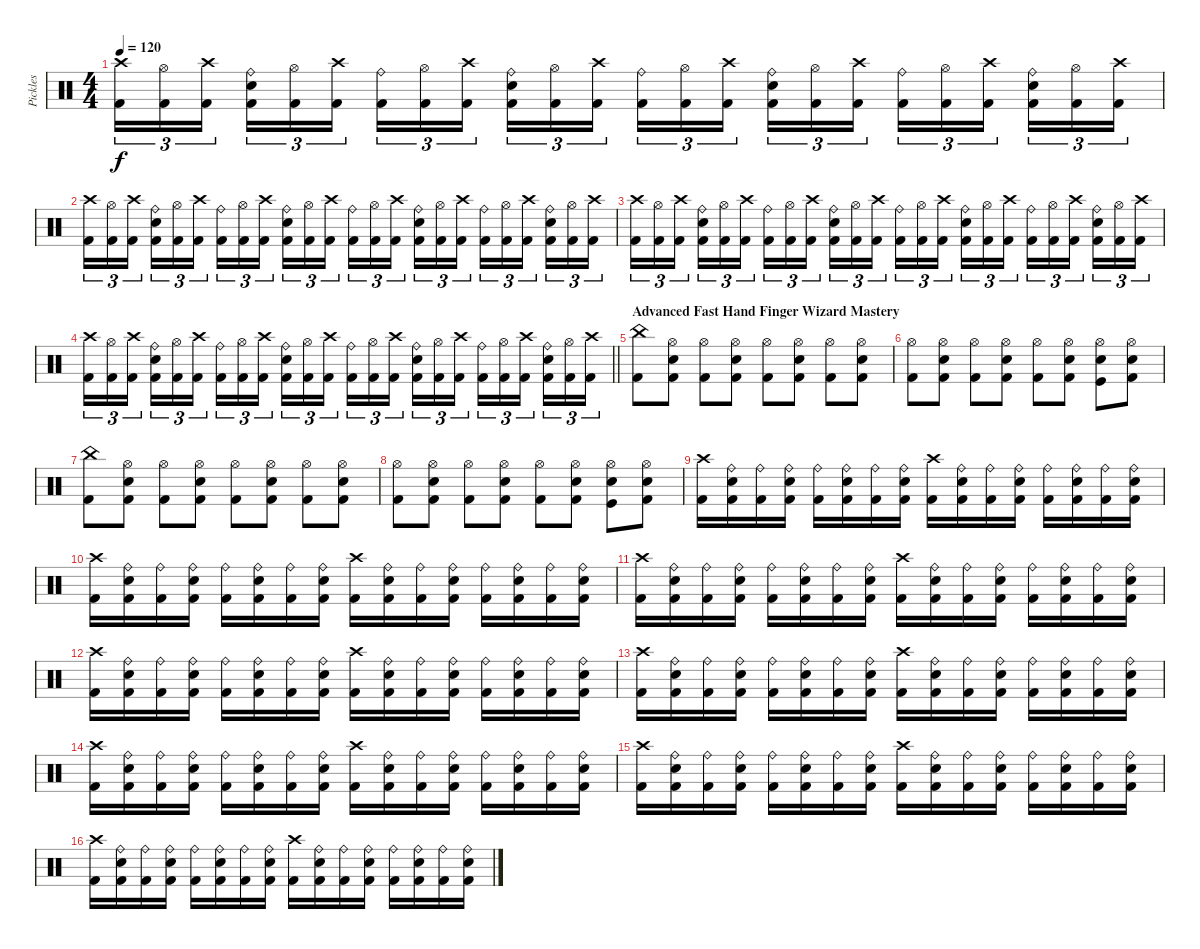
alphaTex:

\track ("Pickles" "Pickles") {instrument percussion}
\staff {score}
\articulation defaults
\ts (4 4)
\tempo 120
\clef neutral
\ks aminor
("Kick (hit) 2" "Crash high (hit)").16{tu (3 2) dy f} ("Kick (hit) 2" "Hi-Hat (open)").16{tu (3 2)} ("Kick (hit) 2" "Crash high (hit)").16{tu (3 2) beam splitsecondary} ("Snare (hit) 2" "Kick (hit) 2" "Ride (bell)").16{tu (3 2)} ("Kick (hit) 2" "Hi-Hat (open)").16{tu (3 2)} ("Kick (hit) 2" "Crash high (hit)").16{tu (3 2)} ("Kick (hit) 2" "Ride (bell)").16{tu (3 2)} ("Kick (hit) 2" "Hi-Hat (open)").16{tu (3 2)} ("Kick (hit) 2" "Crash high (hit)").16{tu (3 2) beam splitsecondary} ("Snare (hit) 2" "Kick (hit) 2" "Ride (bell)").16{tu (3 2)} ("Kick (hit) 2" "Hi-Hat (open)").16{tu (3 2)} ("Kick (hit) 2" "Crash high (hit)").16{tu (3 2)} ("Kick (hit) 2" "Ride (bell)").16{tu (3 2)} ("Kick (hit) 2" "Hi-Hat (open)").16{tu (3 2)} ("Kick (hit) 2" "Crash high (hit)").16{tu (3 2) beam splitsecondary} ("Snare (hit) 2" "Kick (hit) 2" "Ride (bell)").16{tu (3 2)} ("Kick (hit) 2" "Hi-Hat (open)").16{tu (3 2)} ("Kick (hit) 2" "Crash high (hit)").16{tu (3 2)} ("Kick (hit) 2" "Ride (bell)").16{tu (3 2)} ("Kick (hit) 2" "Hi-Hat (open)").16{tu (3 2)} ("Kick (hit) 2" "Crash high (hit)").16{tu (3 2) beam splitsecondary} ("Snare (hit) 2" "Kick (hit) 2" "Ride (bell)").16{tu (3 2)} ("Kick (hit) 2" "Hi-Hat (open)").16{tu (3 2)} ("Kick (hit) 2" "Crash high (hit)").16{tu (3 2)} |
("Kick (hit) 2" "Crash high (hit)").16{tu (3 2)} ("Kick (hit) 2" "Hi-Hat (open)").16{tu (3 2)} ("Kick (hit) 2" "Crash high (hit)").16{tu (3 2) beam splitsecondary} ("Snare (hit) 2" "Kick (hit) 2" "Ride (bell)").16{tu (3 2)} ("Kick (hit) 2" "Hi-Hat (open)").16{tu (3 2)} ("Kick (hit) 2" "Crash high (hit)").16{tu (3 2)} ("Kick (hit) 2" "Ride (bell)").16{tu (3 2)} ("Kick (hit) 2" "Hi-Hat (open)").16{tu (3 2)} ("Kick (hit) 2" "Crash high (hit)").16{tu (3 2) beam splitsecondary} ("Snare (hit) 2" "Kick (hit) 2" "Ride (bell)").16{tu (3 2)} ("Kick (hit) 2" "Hi-Hat (open)").16{tu (3 2)} ("Kick (hit) 2" "Crash high (hit)").16{tu (3 2)} ("Kick (hit) 2" "Ride (bell)").16{tu (3 2)} ("Kick (hit) 2" "Hi-Hat (open)").16{tu (3 2)} ("Kick (hit) 2" "Crash high (hit)").16{tu (3 2) beam splitsecondary} ("Snare (hit) 2" "Kick (hit) 2" "Ride (bell)").16{tu (3 2)} ("Kick (hit) 2" "Hi-Hat (open)").16{tu (3 2)} ("Kick (hit) 2" "Crash high (hit)").16{tu (3 2)} ("Kick (hit) 2" "Ride (bell)").16{tu (3 2)} ("Kick (hit) 2" "Hi-Hat (open)").16{tu (3 2)} ("Kick (hit) 2" "Crash high (hit)").16{tu (3 2) beam splitsecondary} ("Snare (hit) 2" "Kick (hit) 2" "Ride (bell)").16{tu (3 2)} ("Kick (hit) 2" "Hi-Hat (open)").16{tu (3 2)} ("Kick (hit) 2" "Crash high (hit)").16{tu (3 2)} |
("Kick (hit) 2" "Crash high (hit)").16{tu (3 2)} ("Kick (hit) 2" "Hi-Hat (open)").16{tu (3 2)} ("Kick (hit) 2" "Crash high (hit)").16{tu (3 2) beam splitsecondary} ("Snare (hit) 2" "Kick (hit) 2" "Ride (bell)").16{tu (3 2)} ("Kick (hit) 2" "Hi-Hat (open)").16{tu (3 2)} ("Kick (hit) 2" "Crash high (hit)").16{tu (3 2)} ("Kick (hit) 2" "Ride (bell)").16{tu (3 2)} ("Kick (hit) 2" "Hi-Hat (open)").16{tu (3 2)} ("Kick (hit) 2" "Crash high (hit)").16{tu (3 2) beam splitsecondary} ("Snare (hit) 2" "Kick (hit) 2" "Ride (bell)").16{tu (3 2)} ("Kick (hit) 2" "Hi-Hat (open)").16{tu (3 2)} ("Kick (hit) 2" "Crash high (hit)").16{tu (3 2)} ("Kick (hit) 2" "Ride (bell)").16{tu (3 2)} ("Kick (hit) 2" "Hi-Hat (open)").16{tu (3 2)} ("Kick (hit) 2" "Crash high (hit)").16{tu (3 2) beam splitsecondary} ("Snare (hit) 2" "Kick (hit) 2" "Ride (bell)").16{tu (3 2)} ("Kick (hit) 2" "Hi-Hat (open)").16{tu (3 2)} ("Kick (hit) 2" "Crash high (hit)").16{tu (3 2)} ("Kick (hit) 2" "Ride (bell)").16{tu (3 2)} ("Kick (hit) 2" "Hi-Hat (open)").16{tu (3 2)} ("Kick (hit) 2" "Crash high (hit)").16{tu (3 2) beam splitsecondary} ("Snare (hit) 2" "Kick (hit) 2" "Ride (bell)").16{tu (3 2)} ("Kick (hit) 2" "Hi-Hat (open)").16{tu (3 2)} ("Kick (hit) 2" "Crash high (hit)").16{tu (3 2)} |
\barLineRight lightlight
("Kick (hit) 2" "Crash high (hit)").16{tu (3 2)} ("Kick (hit) 2" "Hi-Hat (open)").16{tu (3 2)} ("Kick (hit) 2" "Crash high (hit)").16{tu (3 2) beam splitsecondary} ("Snare (hit) 2" "Kick (hit) 2" "Ride (bell)").16{tu (3 2)} ("Kick (hit) 2" "Hi-Hat (open)").16{tu (3 2)} ("Kick (hit) 2" "Crash high (hit)").16{tu (3 2)} ("Kick (hit) 2" "Ride (bell)").16{tu (3 2)} ("Kick (hit) 2" "Hi-Hat (open)").16{tu (3 2)} ("Kick (hit) 2" "Crash high (hit)").16{tu (3 2) beam splitsecondary} ("Snare (hit) 2" "Kick (hit) 2" "Ride (bell)").16{tu (3 2)} ("Kick (hit) 2" "Hi-Hat (open)").16{tu (3 2)} ("Kick (hit) 2" "Crash high (hit)").16{tu (3 2)} ("Kick (hit) 2" "Ride (bell)").16{tu (3 2)} ("Kick (hit) 2" "Hi-Hat (open)").16{tu (3 2)} ("Kick (hit) 2" "Crash high (hit)").16{tu (3 2) beam splitsecondary} ("Snare (hit) 2" "Kick (hit) 2" "Ride (bell)").16{tu (3 2)} ("Kick (hit) 2" "Hi-Hat (open)").16{tu (3 2)} ("Kick (hit) 2" "Crash high (hit)").16{tu (3 2)} ("Kick (hit) 2" "Ride (bell)").16{tu (3 2)} ("Kick (hit) 2" "Hi-Hat (open)").16{tu (3 2)} ("Kick (hit) 2" "Crash high (hit)").16{tu (3 2) beam splitsecondary} ("Snare (hit) 2" "Kick (hit) 2" "Ride (bell)").16{tu (3 2)} ("Kick (hit) 2" "Hi-Hat (open)").16{tu (3 2)} ("Kick (hit) 2" "Crash high (hit)").16{tu (3 2)} |
\section ("" "Advanced Fast Hand Finger Wizard Mastery")
("Kick (hit) 2" "China (hit)").8 ("Snare (hit) 2" "Kick (hit) 2" "Hi-Hat (open)").8 ("Kick (hit) 2" "Hi-Hat (open)").8 ("Snare (hit) 2" "Kick (hit) 2" "Hi-Hat (open)").8 ("Kick (hit) 2" "Hi-Hat (open)").8 ("Snare (hit) 2" "Kick (hit) 2" "Hi-Hat (open)").8 ("Kick (hit) 2" "Hi-Hat (open)").8 ("Snare (hit) 2" "Kick (hit) 2" "Hi-Hat (open)").8 |
("Kick (hit) 2" "Hi-Hat (open)").8 ("Snare (hit) 2" "Kick (hit) 2" "Hi-Hat (open)").8 ("Kick (hit) 2" "Hi-Hat (open)").8 ("Snare (hit) 2" "Kick (hit) 2" "Hi-Hat (open)").8 ("Kick (hit) 2" "Hi-Hat (open)").8 ("Snare (hit) 2" "Kick (hit) 2" "Hi-Hat (open)").8 ("Snare (hit) 2" "Kick (hit)" "Hi-Hat (open)").8 ("Snare (hit) 2" "Kick (hit) 2" "Hi-Hat (open)").8 |
("Kick (hit) 2" "China (hit)").8 ("Snare (hit) 2" "Kick (hit) 2" "Hi-Hat (open)").8 ("Kick (hit) 2" "Hi-Hat (open)").8 ("Snare (hit) 2" "Kick (hit) 2" "Hi-Hat (open)").8 ("Kick (hit) 2" "Hi-Hat (open)").8 ("Snare (hit) 2" "Kick (hit) 2" "Hi-Hat (open)").8 ("Kick (hit) 2" "Hi-Hat (open)").8 ("Snare (hit) 2" "Kick (hit) 2" "Hi-Hat (open)").8 |
("Kick (hit) 2" "Hi-Hat (open)").8 ("Snare (hit) 2" "Kick (hit) 2" "Hi-Hat (open)").8 ("Kick (hit) 2" "Hi-Hat (open)").8 ("Snare (hit) 2" "Kick (hit) 2" "Hi-Hat (open)").8 ("Kick (hit) 2" "Hi-Hat (open)").8 ("Snare (hit) 2" "Kick (hit) 2" "Hi-Hat (open)").8 ("Snare (hit) 2" "Kick (hit)" "Hi-Hat (open)").8 ("Snare (hit) 2" "Kick (hit) 2" "Hi-Hat (open)").8 |
("Kick (hit) 2" "Crash high (hit)").16 ("Snare (hit) 2" "Kick (hit) 2" "Ride (bell)").16 ("Kick (hit) 2" "Ride (bell)").16 ("Snare (hit) 2" "Kick (hit) 2" "Ride (bell)").16 ("Kick (hit) 2" "Ride (bell)").16 ("Snare (hit) 2" "Kick (hit) 2" "Ride (bell)").16 ("Kick (hit) 2" "Ride (bell)").16 ("Snare (hit) 2" "Kick (hit) 2" "Ride (bell)").16 ("Kick (hit) 2" "Crash high (hit)").16 ("Snare (hit) 2" "Kick (hit) 2" "Ride (bell)").16 ("Kick (hit) 2" "Ride (bell)").16 ("Snare (hit) 2" "Kick (hit) 2" "Ride (bell)").16 ("Kick (hit) 2" "Ride (bell)").16 ("Snare (hit) 2" "Kick (hit) 2" "Ride (bell)").16 ("Kick (hit) 2" "Ride (bell)").16 ("Snare (hit) 2" "Kick (hit) 2" "Ride (bell)").16 |
("Kick (hit) 2" "Crash high (hit)").16 ("Snare (hit) 2" "Kick (hit) 2" "Ride (bell)").16 ("Kick (hit) 2" "Ride (bell)").16 ("Snare (hit) 2" "Kick (hit) 2" "Ride (bell)").16 ("Kick (hit) 2" "Ride (bell)").16 ("Snare (hit) 2" "Kick (hit) 2" "Ride (bell)").16 ("Kick (hit) 2" "Ride (bell)").16 ("Snare (hit) 2" "Kick (hit) 2" "Ride (bell)").16 ("Kick (hit) 2" "Crash high (hit)").16 ("Snare (hit) 2" "Kick (hit) 2" "Ride (bell)").16 ("Kick (hit) 2" "Ride (bell)").16 ("Snare (hit) 2" "Kick (hit) 2" "Ride (bell)").16 ("Kick (hit) 2" "Ride (bell)").16 ("Snare (hit) 2" "Kick (hit) 2" "Ride (bell)").16 ("Kick (hit) 2" "Ride (bell)").16 ("Snare (hit) 2" "Kick (hit) 2" "Ride (bell)").16 |
("Kick (hit) 2" "Crash high (hit)").16 ("Snare (hit) 2" "Kick (hit) 2" "Ride (bell)").16 ("Kick (hit) 2" "Ride (bell)").16 ("Snare (hit) 2" "Kick (hit) 2" "Ride (bell)").16 ("Kick (hit) 2" "Ride (bell)").16 ("Snare (hit) 2" "Kick (hit) 2" "Ride (bell)").16 ("Kick (hit) 2" "Ride (bell)").16 ("Snare (hit) 2" "Kick (hit) 2" "Ride (bell)").16 ("Kick (hit) 2" "Crash high (hit)").16 ("Snare (hit) 2" "Kick (hit) 2" "Ride (bell)").16 ("Kick (hit) 2" "Ride (bell)").16 ("Snare (hit) 2" "Kick (hit) 2" "Ride (bell)").16 ("Kick (hit) 2" "Ride (bell)").16 ("Snare (hit) 2" "Kick (hit) 2" "Ride (bell)").16 ("Kick (hit) 2" "Ride (bell)").16 ("Snare (hit) 2" "Kick (hit) 2" "Ride (bell)").16 |
("Kick (hit) 2" "Crash high (hit)").16 ("Snare (hit) 2" "Kick (hit) 2" "Ride (bell)").16 ("Kick (hit) 2" "Ride (bell)").16 ("Snare (hit) 2" "Kick (hit) 2" "Ride (bell)").16 ("Kick (hit) 2" "Ride (bell)").16 ("Snare (hit) 2" "Kick (hit) 2" "Ride (bell)").16 ("Kick (hit) 2" "Ride (bell)").16 ("Snare (hit) 2" "Kick (hit) 2" "Ride (bell)").16 ("Kick (hit) 2" "Crash high (hit)").16 ("Snare (hit) 2" "Kick (hit) 2" "Ride (bell)").16 ("Kick (hit) 2" "Ride (bell)").16 ("Snare (hit) 2" "Kick (hit) 2" "Ride (bell)").16 ("Kick (hit) 2" "Ride (bell)").16 ("Snare (hit) 2" "Kick (hit) 2" "Ride (bell)").16 ("Kick (hit) 2" "Ride (bell)").16 ("Snare (hit) 2" "Kick (hit) 2" "Ride (bell)").16 |
("Kick (hit) 2" "Crash high (hit)").16 ("Snare (hit) 2" "Kick (hit) 2" "Ride (bell)").16 ("Kick (hit) 2" "Ride (bell)").16 ("Snare (hit) 2" "Kick (hit) 2" "Ride (bell)").16 ("Kick (hit) 2" "Ride (bell)").16 ("Snare (hit) 2" "Kick (hit) 2" "Ride (bell)").16 ("Kick (hit) 2" "Ride (bell)").16 ("Snare (hit) 2" "Kick (hit) 2" "Ride (bell)").16 ("Kick (hit) 2" "Crash high (hit)").16 ("Snare (hit) 2" "Kick (hit) 2" "Ride (bell)").16 ("Kick (hit) 2" "Ride (bell)").16 ("Snare (hit) 2" "Kick (hit) 2" "Ride (bell)").16 ("Kick (hit) 2" "Ride (bell)").16 ("Snare (hit) 2" "Kick (hit) 2" "Ride (bell)").16 ("Kick (hit) 2" "Ride (bell)").16 ("Snare (hit) 2" "Kick (hit) 2" "Ride (bell)").16 |
("Kick (hit) 2" "Crash high (hit)").16 ("Snare (hit) 2" "Kick (hit) 2" "Ride (bell)").16 ("Kick (hit) 2" "Ride (bell)").16 ("Snare (hit) 2" "Kick (hit) 2" "Ride (bell)").16 ("Kick (hit) 2" "Ride (bell)").16 ("Snare (hit) 2" "Kick (hit) 2" "Ride (bell)").16 ("Kick (hit) 2" "Ride (bell)").16 ("Snare (hit) 2" "Kick (hit) 2" "Ride (bell)").16 ("Kick (hit) 2" "Crash high (hit)").16 ("Snare (hit) 2" "Kick (hit) 2" "Ride (bell)").16 ("Kick (hit) 2" "Ride (bell)").16 ("Snare (hit) 2" "Kick (hit) 2" "Ride (bell)").16 ("Kick (hit) 2" "Ride (bell)").16 ("Snare (hit) 2" "Kick (hit) 2" "Ride (bell)").16 ("Kick (hit) 2" "Ride (bell)").16 ("Snare (hit) 2" "Kick (hit) 2" "Ride (bell)").16 |
("Kick (hit) 2" "Crash high (hit)").16 ("Snare (hit) 2" "Kick (hit) 2" "Ride (bell)").16 ("Kick (hit) 2" "Ride (bell)").16 ("Snare (hit) 2" "Kick (hit) 2" "Ride (bell)").16 ("Kick (hit) 2" "Ride (bell)").16 ("Snare (hit) 2" "Kick (hit) 2" "Ride (bell)").16 ("Kick (hit) 2" "Ride (bell)").16 ("Snare (hit) 2" "Kick (hit) 2" "Ride (bell)").16 ("Kick (hit) 2" "Crash high (hit)").16 ("Snare (hit) 2" "Kick (hit) 2" "Ride (bell)").16 ("Kick (hit) 2" "Ride (bell)").16 ("Snare (hit) 2" "Kick (hit) 2" "Ride (bell)").16 ("Kick (hit) 2" "Ride (bell)").16 ("Snare (hit) 2" "Kick (hit) 2" "Ride (bell)").16 ("Kick (hit) 2" "Ride (bell)").16 ("Snare (hit) 2" "Kick (hit) 2" "Ride (bell)").16 |
("Kick (hit) 2" "Crash high (hit)").16 ("Snare (hit) 2" "Kick (hit) 2" "Ride (bell)").16 ("Kick (hit) 2" "Ride (bell)").16 ("Snare (hit) 2" "Kick (hit) 2" "Ride (bell)").16 ("Kick (hit) 2" "Ride (bell)").16 ("Snare (hit) 2" "Kick (hit) 2" "Ride (bell)").16 ("Kick (hit) 2" "Ride (bell)").16 ("Snare (hit) 2" "Kick (hit) 2" "Ride (bell)").16 ("Kick (hit) 2" "Crash high (hit)").16 ("Snare (hit) 2" "Kick (hit) 2" "Ride (bell)").16 ("Kick (hit) 2" "Ride (bell)").16 ("Snare (hit) 2" "Kick (hit) 2" "Ride (bell)").16 ("Kick (hit) 2" "Ride (bell)").16 ("Snare (hit) 2" "Kick (hit) 2" "Ride (bell)").16 ("Kick (hit) 2" "Ride (bell)").16 ("Snare (hit) 2" "Kick (hit) 2" "Ride (bell)").16
